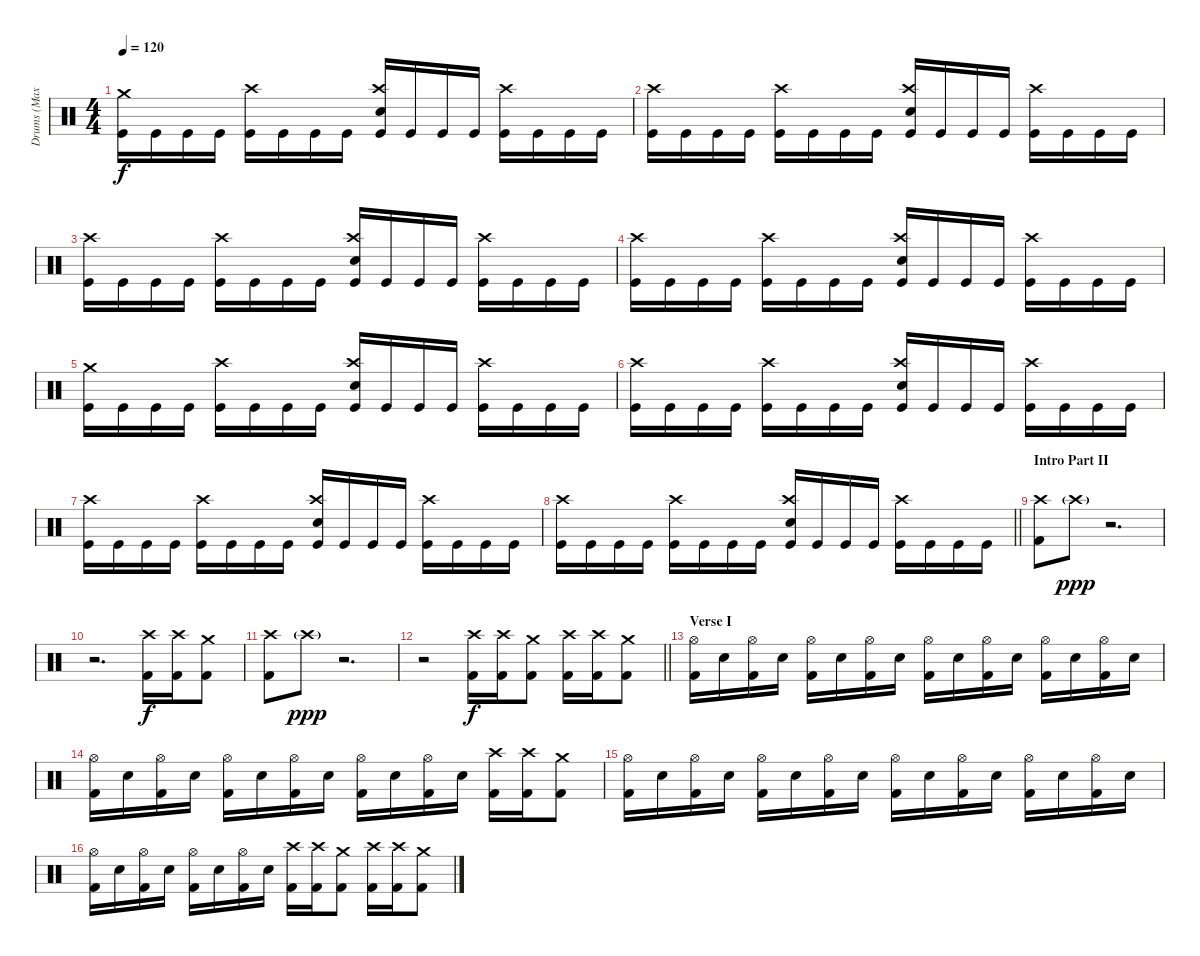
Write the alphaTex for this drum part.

\track ("Drums (Max Duhamel)" "Drums (Max") {instrument percussion}
\staff {score}
\articulation defaults
\ts (4 4)
\tempo 120
\clef neutral
\ks c
("Crash medium (hit)" "Kick (hit)").16{dy f} "Kick (hit)".16 "Kick (hit)".16 "Kick (hit)".16 ("Crash high (hit)" "Kick (hit)").16 "Kick (hit)".16 "Kick (hit)".16 "Kick (hit)".16 ("Crash high (hit)" "Electric Snare (hit)" "Kick (hit)").16 "Kick (hit)".16 "Kick (hit)".16 "Kick (hit)".16 ("Crash high (hit)" "Kick (hit)").16 "Kick (hit)".16 "Kick (hit)".16 "Kick (hit)".16 |
("Crash high (hit)" "Kick (hit)").16 "Kick (hit)".16 "Kick (hit)".16 "Kick (hit)".16 ("Crash high (hit)" "Kick (hit)").16 "Kick (hit)".16 "Kick (hit)".16 "Kick (hit)".16 ("Crash high (hit)" "Electric Snare (hit)" "Kick (hit)").16 "Kick (hit)".16 "Kick (hit)".16 "Kick (hit)".16 ("Crash high (hit)" "Kick (hit)").16 "Kick (hit)".16 "Kick (hit)".16 "Kick (hit)".16 |
("Crash high (hit)" "Kick (hit)").16 "Kick (hit)".16 "Kick (hit)".16 "Kick (hit)".16 ("Crash high (hit)" "Kick (hit)").16 "Kick (hit)".16 "Kick (hit)".16 "Kick (hit)".16 ("Crash high (hit)" "Electric Snare (hit)" "Kick (hit)").16 "Kick (hit)".16 "Kick (hit)".16 "Kick (hit)".16 ("Crash high (hit)" "Kick (hit)").16 "Kick (hit)".16 "Kick (hit)".16 "Kick (hit)".16 |
("Crash high (hit)" "Kick (hit)").16 "Kick (hit)".16 "Kick (hit)".16 "Kick (hit)".16 ("Crash high (hit)" "Kick (hit)").16 "Kick (hit)".16 "Kick (hit)".16 "Kick (hit)".16 ("Crash high (hit)" "Electric Snare (hit)" "Kick (hit)").16 "Kick (hit)".16 "Kick (hit)".16 "Kick (hit)".16 ("Crash high (hit)" "Kick (hit)").16 "Kick (hit)".16 "Kick (hit)".16 "Kick (hit)".16 |
("Crash medium (hit)" "Kick (hit)").16 "Kick (hit)".16 "Kick (hit)".16 "Kick (hit)".16 ("Crash high (hit)" "Kick (hit)").16 "Kick (hit)".16 "Kick (hit)".16 "Kick (hit)".16 ("Crash high (hit)" "Electric Snare (hit)" "Kick (hit)").16 "Kick (hit)".16 "Kick (hit)".16 "Kick (hit)".16 ("Crash high (hit)" "Kick (hit)").16 "Kick (hit)".16 "Kick (hit)".16 "Kick (hit)".16 |
("Crash high (hit)" "Kick (hit)").16 "Kick (hit)".16 "Kick (hit)".16 "Kick (hit)".16 ("Crash high (hit)" "Kick (hit)").16 "Kick (hit)".16 "Kick (hit)".16 "Kick (hit)".16 ("Crash high (hit)" "Electric Snare (hit)" "Kick (hit)").16 "Kick (hit)".16 "Kick (hit)".16 "Kick (hit)".16 ("Crash high (hit)" "Kick (hit)").16 "Kick (hit)".16 "Kick (hit)".16 "Kick (hit)".16 |
("Crash high (hit)" "Kick (hit)").16 "Kick (hit)".16 "Kick (hit)".16 "Kick (hit)".16 ("Crash high (hit)" "Kick (hit)").16 "Kick (hit)".16 "Kick (hit)".16 "Kick (hit)".16 ("Crash high (hit)" "Electric Snare (hit)" "Kick (hit)").16 "Kick (hit)".16 "Kick (hit)".16 "Kick (hit)".16 ("Crash high (hit)" "Kick (hit)").16 "Kick (hit)".16 "Kick (hit)".16 "Kick (hit)".16 |
\barLineRight lightlight
("Crash high (hit)" "Kick (hit)").16 "Kick (hit)".16 "Kick (hit)".16 "Kick (hit)".16 ("Crash high (hit)" "Kick (hit)").16 "Kick (hit)".16 "Kick (hit)".16 "Kick (hit)".16 ("Crash high (hit)" "Electric Snare (hit)" "Kick (hit)").16 "Kick (hit)".16 "Kick (hit)".16 "Kick (hit)".16 ("Crash high (hit)" "Kick (hit)").16 "Kick (hit)".16 "Kick (hit)".16 "Kick (hit)".16 |
\section ("" "Intro Part II")
("Crash high (hit)" "Kick (hit) 2").8 "Crash high (hit)"{g}.8{dy ppp} r.2{d} |
r.2{d} ("Crash high (hit)" "Kick (hit) 2").16{dy f} ("Crash high (hit)" "Kick (hit) 2").16 ("Crash medium (hit)" "Kick (hit) 2").8 |
("Crash high (hit)" "Kick (hit) 2").8 "Crash high (hit)"{g}.8{dy ppp} r.2{d} |
\barLineRight lightlight
r.2 ("Crash high (hit)" "Kick (hit) 2").16{dy f} ("Crash high (hit)" "Kick (hit) 2").16 ("Crash medium (hit)" "Kick (hit) 2").8 ("Crash high (hit)" "Kick (hit) 2").16 ("Crash high (hit)" "Kick (hit) 2").16 ("Crash medium (hit)" "Kick (hit) 2").8 |
\section ("" "Verse I")
("Hi-Hat (open)" "Kick (hit) 2").16 "Electric Snare (hit)".16 ("Hi-Hat (open)" "Kick (hit) 2").16 "Electric Snare (hit)".16 ("Hi-Hat (open)" "Kick (hit) 2").16 "Electric Snare (hit)".16 ("Hi-Hat (open)" "Kick (hit) 2").16 "Electric Snare (hit)".16 ("Hi-Hat (open)" "Kick (hit) 2").16 "Electric Snare (hit)".16 ("Hi-Hat (open)" "Kick (hit) 2").16 "Electric Snare (hit)".16 ("Hi-Hat (open)" "Kick (hit) 2").16 "Electric Snare (hit)".16 ("Hi-Hat (open)" "Kick (hit) 2").16 "Electric Snare (hit)".16 |
("Hi-Hat (open)" "Kick (hit) 2").16 "Electric Snare (hit)".16 ("Hi-Hat (open)" "Kick (hit) 2").16 "Electric Snare (hit)".16 ("Hi-Hat (open)" "Kick (hit) 2").16 "Electric Snare (hit)".16 ("Hi-Hat (open)" "Kick (hit) 2").16 "Electric Snare (hit)".16 ("Hi-Hat (open)" "Kick (hit) 2").16 "Electric Snare (hit)".16 ("Hi-Hat (open)" "Kick (hit) 2").16 "Electric Snare (hit)".16 ("Crash high (hit)" "Kick (hit) 2").16 ("Crash high (hit)" "Kick (hit) 2").16 ("Crash medium (hit)" "Kick (hit) 2").8 |
("Hi-Hat (open)" "Kick (hit) 2").16 "Electric Snare (hit)".16 ("Hi-Hat (open)" "Kick (hit) 2").16 "Electric Snare (hit)".16 ("Hi-Hat (open)" "Kick (hit) 2").16 "Electric Snare (hit)".16 ("Hi-Hat (open)" "Kick (hit) 2").16 "Electric Snare (hit)".16 ("Hi-Hat (open)" "Kick (hit) 2").16 "Electric Snare (hit)".16 ("Hi-Hat (open)" "Kick (hit) 2").16 "Electric Snare (hit)".16 ("Hi-Hat (open)" "Kick (hit) 2").16 "Electric Snare (hit)".16 ("Hi-Hat (open)" "Kick (hit) 2").16 "Electric Snare (hit)".16 |
("Hi-Hat (open)" "Kick (hit) 2").16 "Electric Snare (hit)".16 ("Hi-Hat (open)" "Kick (hit) 2").16 "Electric Snare (hit)".16 ("Hi-Hat (open)" "Kick (hit) 2").16 "Electric Snare (hit)".16 ("Hi-Hat (open)" "Kick (hit) 2").16 "Electric Snare (hit)".16 ("Crash high (hit)" "Kick (hit) 2").16 ("Crash high (hit)" "Kick (hit) 2").16 ("Crash medium (hit)" "Kick (hit) 2").8 ("Crash high (hit)" "Kick (hit) 2").16 ("Crash high (hit)" "Kick (hit) 2").16 ("Crash medium (hit)" "Kick (hit) 2").8
